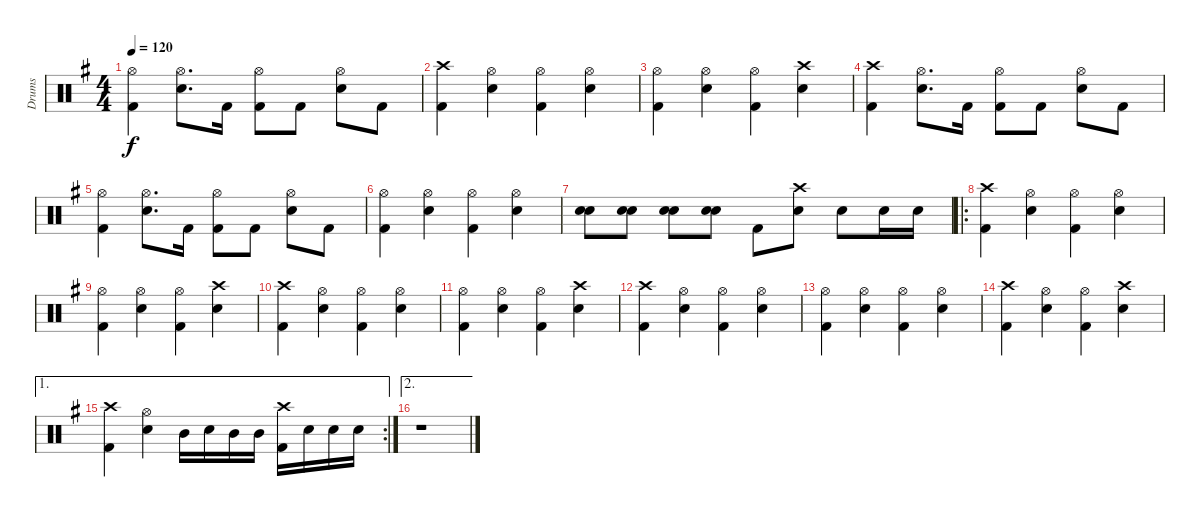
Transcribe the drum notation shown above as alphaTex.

\track ("Drums" "Drums") {instrument percussion}
\staff {score}
\articulation defaults
\ts (4 4)
\tempo 120
\clef neutral
\ks g
("Hi-Hat (open)" "Kick (hit) 2").4{dy f} ("Hi-Hat (open)" "Snare (hit) 2").8{d} "Kick (hit) 2".16 ("Hi-Hat (open)" "Kick (hit) 2").8 "Kick (hit) 2".8 ("Hi-Hat (open)" "Snare (hit) 2").8 "Kick (hit) 2".8 |
("Crash high (hit)" "Kick (hit) 2").4 ("Hi-Hat (open)" "Snare (hit) 2").4 ("Hi-Hat (open)" "Kick (hit) 2").4 ("Hi-Hat (open)" "Snare (hit) 2").4 |
("Hi-Hat (open)" "Kick (hit) 2").4 ("Hi-Hat (open)" "Snare (hit) 2").4 ("Hi-Hat (open)" "Kick (hit) 2").4 ("Crash high (hit)" "Snare (hit) 2").4 |
("Crash high (hit)" "Kick (hit) 2").4 ("Hi-Hat (open)" "Snare (hit) 2").8{d} "Kick (hit) 2".16 ("Hi-Hat (open)" "Kick (hit) 2").8 "Kick (hit) 2".8 ("Hi-Hat (open)" "Snare (hit) 2").8 "Kick (hit) 2".8 |
("Hi-Hat (open)" "Kick (hit) 2").4 ("Hi-Hat (open)" "Snare (hit) 2").8{d} "Kick (hit) 2".16 ("Hi-Hat (open)" "Kick (hit) 2").8 "Kick (hit) 2".8 ("Hi-Hat (open)" "Snare (hit) 2").8 "Kick (hit) 2".8 |
("Hi-Hat (open)" "Kick (hit) 2").4 ("Hi-Hat (open)" "Snare (hit) 2").4 ("Hi-Hat (open)" "Kick (hit) 2").4 ("Hi-Hat (open)" "Snare (hit) 2").4 |
("Snare (hit) 2" "Snare (hit) 2").8 ("Snare (hit) 2" "Snare (hit) 2").8 ("Snare (hit) 2" "Snare (hit) 2").8 ("Snare (hit) 2" "Snare (hit) 2").8 "Kick (hit) 2".8 ("Crash high (hit)" "Snare (hit) 2").8 "Snare (hit) 2".8 "Snare (hit) 2".16 "Snare (hit) 2".16 |
\ro
("Crash high (hit)" "Kick (hit) 2").4 ("Hi-Hat (open)" "Snare (hit) 2").4 ("Hi-Hat (open)" "Kick (hit) 2").4 ("Hi-Hat (open)" "Snare (hit) 2").4 |
("Hi-Hat (open)" "Kick (hit) 2").4 ("Hi-Hat (open)" "Snare (hit) 2").4 ("Hi-Hat (open)" "Kick (hit) 2").4 ("Crash high (hit)" "Snare (hit) 2").4 |
("Crash high (hit)" "Kick (hit) 2").4 ("Hi-Hat (open)" "Snare (hit) 2").4 ("Hi-Hat (open)" "Kick (hit) 2").4 ("Hi-Hat (open)" "Snare (hit) 2").4 |
("Hi-Hat (open)" "Kick (hit) 2").4 ("Hi-Hat (open)" "Snare (hit) 2").4 ("Hi-Hat (open)" "Kick (hit) 2").4 ("Crash high (hit)" "Snare (hit) 2").4 |
("Crash high (hit)" "Kick (hit) 2").4 ("Hi-Hat (open)" "Snare (hit) 2").4 ("Hi-Hat (open)" "Kick (hit) 2").4 ("Hi-Hat (open)" "Snare (hit) 2").4 |
("Hi-Hat (open)" "Kick (hit) 2").4 ("Hi-Hat (open)" "Snare (hit) 2").4 ("Hi-Hat (open)" "Kick (hit) 2").4 ("Hi-Hat (open)" "Snare (hit) 2").4 |
("Crash high (hit)" "Kick (hit) 2").4 ("Hi-Hat (open)" "Snare (hit) 2").4 ("Hi-Hat (open)" "Kick (hit) 2").4 ("Crash high (hit)" "Snare (hit) 2").4 |
\ae 1
\rc 2
("Crash high (hit)" "Kick (hit) 2").4 ("Hi-Hat (open)" "Snare (hit) 2").4 "Mid Tom (hit)".16 "Snare (hit) 2".16 "Mid Tom (hit)".16 "Mid Tom (hit)".16 ("Crash high (hit)" "Kick (hit) 2").16 "Snare (hit) 2".16 "Snare (hit) 2".16 "Snare (hit) 2".16 |
\ae 2
r.1
